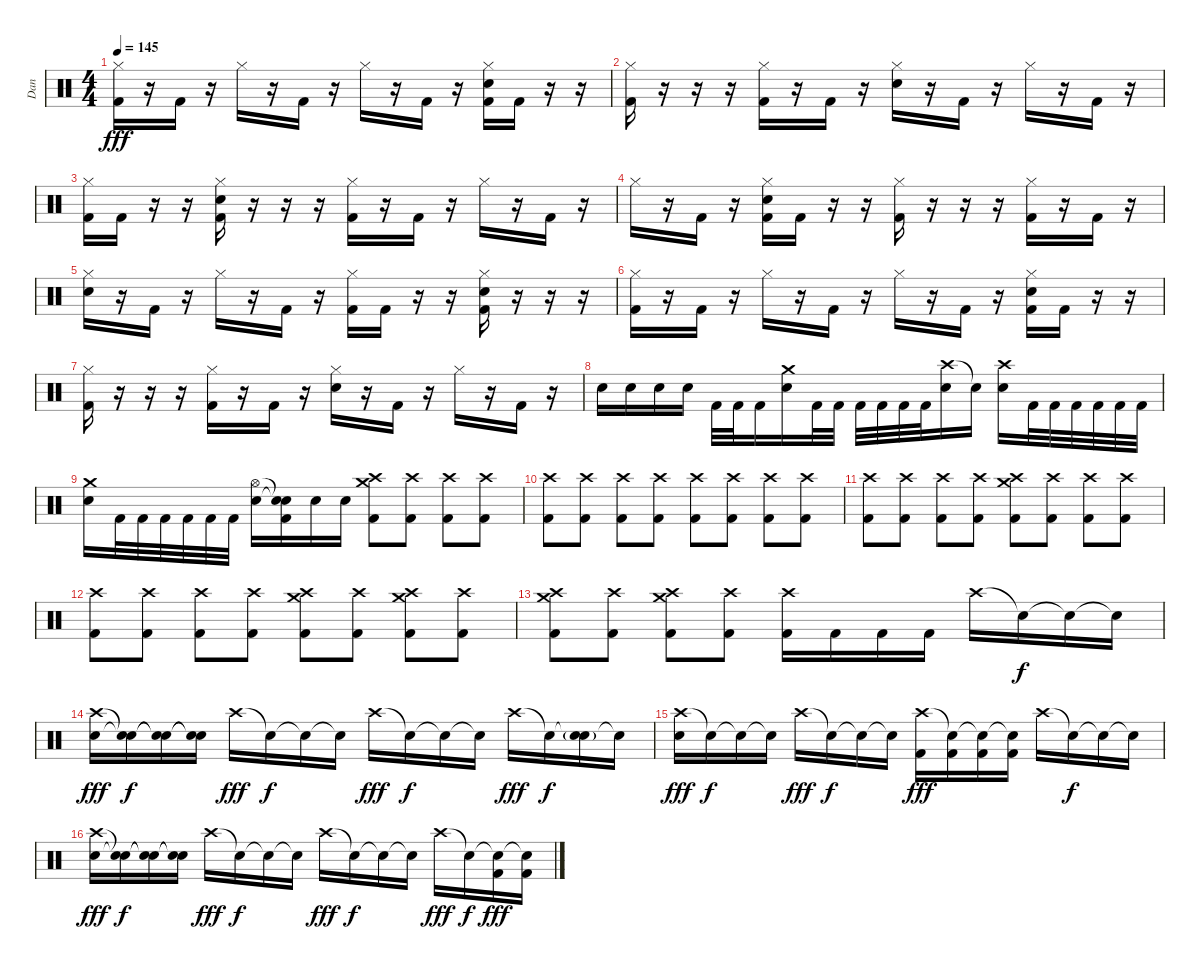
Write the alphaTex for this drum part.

\track ("Dan" "Dan") {instrument percussion}
\staff {score}
\articulation defaults
\ts (4 4)
\tempo 145
\clef neutral
\ks c
("Hi-Hat (closed)" "Kick (hit) 2").16{dy fff} r.16 "Kick (hit) 2".16 r.16 "Hi-Hat (closed)".16 r.16 "Kick (hit) 2".16 r.16 "Hi-Hat (closed)".16 r.16 "Kick (hit) 2".16 r.16 ("Hi-Hat (closed)" "Electric Snare (hit)" "Kick (hit) 2").16 "Kick (hit) 2".16 r.16 r.16 |
("Hi-Hat (closed)" "Kick (hit) 2").16 r.16 r.16 r.16 ("Hi-Hat (closed)" "Kick (hit) 2").16 r.16 "Kick (hit) 2".16 r.16 ("Hi-Hat (closed)" "Electric Snare (hit)").16 r.16 "Kick (hit) 2".16 r.16 "Hi-Hat (closed)".16 r.16 "Kick (hit) 2".16 r.16 |
("Hi-Hat (closed)" "Kick (hit) 2").16 "Kick (hit) 2".16 r.16 r.16 ("Hi-Hat (closed)" "Electric Snare (hit)" "Kick (hit) 2").16 r.16 r.16 r.16 ("Hi-Hat (closed)" "Kick (hit) 2").16 r.16 "Kick (hit) 2".16 r.16 "Hi-Hat (closed)".16 r.16 "Kick (hit) 2".16 r.16 |
"Hi-Hat (closed)".16 r.16 "Kick (hit) 2".16 r.16 ("Hi-Hat (closed)" "Electric Snare (hit)" "Kick (hit) 2").16 "Kick (hit) 2".16 r.16 r.16 ("Hi-Hat (closed)" "Kick (hit) 2").16 r.16 r.16 r.16 ("Hi-Hat (closed)" "Kick (hit) 2").16 r.16 "Kick (hit) 2".16 r.16 |
("Hi-Hat (closed)" "Electric Snare (hit)").16 r.16 "Kick (hit) 2".16 r.16 "Hi-Hat (closed)".16 r.16 "Kick (hit) 2".16 r.16 ("Hi-Hat (closed)" "Kick (hit) 2").16 "Kick (hit) 2".16 r.16 r.16 ("Hi-Hat (closed)" "Electric Snare (hit)" "Kick (hit) 2").16 r.16 r.16 r.16 |
("Hi-Hat (closed)" "Kick (hit) 2").16 r.16 "Kick (hit) 2".16 r.16 "Hi-Hat (closed)".16 r.16 "Kick (hit) 2".16 r.16 "Hi-Hat (closed)".16 r.16 "Kick (hit) 2".16 r.16 ("Hi-Hat (closed)" "Electric Snare (hit)" "Kick (hit) 2").16 "Kick (hit) 2".16 r.16 r.16 |
("Hi-Hat (closed)" "Kick (hit) 2").16 r.16 r.16 r.16 ("Hi-Hat (closed)" "Kick (hit) 2").16 r.16 "Kick (hit) 2".16 r.16 ("Hi-Hat (closed)" "Electric Snare (hit)").16 r.16 "Kick (hit) 2".16 r.16 "Hi-Hat (closed)".16 r.16 "Kick (hit) 2".16 r.16 |
"Electric Snare (hit)".16 "Electric Snare (hit)".16 "Electric Snare (hit)".16 "Electric Snare (hit)".16 "Kick (hit) 2".32 "Kick (hit) 2".32 "Kick (hit) 2".16 ("Crash medium (hit)" "Electric Snare (hit)").16 "Kick (hit) 2".32 "Kick (hit) 2".32 "Kick (hit) 2".32 "Kick (hit) 2".32 "Kick (hit) 2".32 "Kick (hit) 2".32 ("Crash high (hit)" "Electric Snare (hit)").16 "Snare (hit)"{t}.16 ("Crash high (hit)" "Electric Snare (hit)").16 "Kick (hit) 2".32 "Kick (hit) 2".32 "Kick (hit) 2".32 "Kick (hit) 2".32 "Kick (hit) 2".32 "Kick (hit) 2".32 |
("Crash medium (hit)" "Electric Snare (hit)").16 "Kick (hit) 2".32 "Kick (hit) 2".32 "Kick (hit) 2".32 "Kick (hit) 2".32 "Kick (hit) 2".32 "Kick (hit) 2".32 ("Hi-Hat (open)" "Electric Snare (hit)").16 ("Snare (hit)"{t} "Snare (hit)"{t} "Kick (hit) 2").16 "Electric Snare (hit)".16 "Electric Snare (hit)".16 ("Crash medium (hit)" "Crash high (hit)" "Kick (hit) 2").8 ("Crash high (hit)" "Kick (hit) 2").8 ("Crash high (hit)" "Kick (hit) 2").8 ("Crash high (hit)" "Kick (hit) 2").8 |
("Crash high (hit)" "Kick (hit) 2").8 ("Crash high (hit)" "Kick (hit) 2").8 ("Crash high (hit)" "Kick (hit) 2").8 ("Crash high (hit)" "Kick (hit) 2").8 ("Crash high (hit)" "Kick (hit) 2").8 ("Crash high (hit)" "Kick (hit) 2").8 ("Crash high (hit)" "Kick (hit) 2").8 ("Crash high (hit)" "Kick (hit) 2").8 |
("Crash high (hit)" "Kick (hit) 2").8 ("Crash high (hit)" "Kick (hit) 2").8 ("Crash high (hit)" "Kick (hit) 2").8 ("Crash high (hit)" "Kick (hit) 2").8 ("Crash medium (hit)" "Crash high (hit)" "Kick (hit) 2").8 ("Crash high (hit)" "Kick (hit) 2").8 ("Crash high (hit)" "Kick (hit) 2").8 ("Crash high (hit)" "Kick (hit) 2").8 |
("Crash high (hit)" "Kick (hit) 2").8 ("Crash high (hit)" "Kick (hit) 2").8 ("Crash high (hit)" "Kick (hit) 2").8 ("Crash high (hit)" "Kick (hit) 2").8 ("Crash medium (hit)" "Crash high (hit)" "Kick (hit) 2").8 ("Crash high (hit)" "Kick (hit) 2").8 ("Crash medium (hit)" "Crash high (hit)" "Kick (hit) 2").8 ("Crash high (hit)" "Kick (hit) 2").8 |
("Crash medium (hit)" "Crash high (hit)" "Kick (hit) 2").8 ("Crash high (hit)" "Kick (hit) 2").8 ("Crash medium (hit)" "Crash high (hit)" "Kick (hit) 2").8 ("Crash high (hit)" "Kick (hit) 2").8 ("Crash high (hit)" "Kick (hit) 2").16 "Kick (hit) 2".16 "Kick (hit) 2".16 "Kick (hit) 2".16 "Crash high (hit)".16 "Snare (hit)"{t}.16{dy f} "Snare (hit)"{t}.16 "Snare (hit)"{t}.16 |
("Crash high (hit)" "Electric Snare (hit)").16{dy fff} ("Snare (hit)"{t} "Snare (hit)"{t}).16{dy f} ("Snare (hit)"{t} "Snare (hit)"{t}).16 ("Snare (hit)"{t} "Snare (hit)"{t}).16 "Crash high (hit)".16{dy fff} "Snare (hit)"{t}.16{dy f} "Snare (hit)"{t}.16 "Snare (hit)"{t}.16 "Crash high (hit)".16{dy fff} "Snare (hit)"{t}.16{dy f} "Snare (hit)"{t}.16 "Snare (hit)"{t}.16 "Crash high (hit)".16{dy fff} "Snare (hit)"{t}.16{dy f} ("Snare (hit)"{t} "Electric Snare (hit)"{g}).16 "Snare (hit)"{t}.16 |
("Crash high (hit)" "Electric Snare (hit)").16{dy fff} "Snare (hit)"{t}.16{dy f} "Snare (hit)"{t}.16 "Snare (hit)"{t}.16 "Crash high (hit)".16{dy fff} "Snare (hit)"{t}.16{dy f} "Snare (hit)"{t}.16 "Snare (hit)"{t}.16 ("Crash high (hit)" "Kick (hit) 2").16{dy fff} ("Snare (hit)"{t} "Kick (hit) 2").16 ("Snare (hit)"{t} "Kick (hit) 2").16 ("Snare (hit)"{t} "Kick (hit) 2").16 "Crash high (hit)".16 "Snare (hit)"{t}.16{dy f} "Snare (hit)"{t}.16 "Snare (hit)"{t}.16 |
("Crash high (hit)" "Electric Snare (hit)").16{dy fff} ("Snare (hit)"{t} "Snare (hit)"{t}).16{dy f} ("Snare (hit)"{t} "Snare (hit)"{t}).16 ("Snare (hit)"{t} "Snare (hit)"{t}).16 "Crash high (hit)".16{dy fff} "Snare (hit)"{t}.16{dy f} "Snare (hit)"{t}.16 "Snare (hit)"{t}.16 "Crash high (hit)".16{dy fff} "Snare (hit)"{t}.16{dy f} "Snare (hit)"{t}.16 "Snare (hit)"{t}.16 "Crash high (hit)".16{dy fff} "Snare (hit)"{t}.16{dy f} ("Snare (hit)"{t} "Kick (hit) 2").16{dy fff} ("Snare (hit)"{t} "Kick (hit) 2").16
